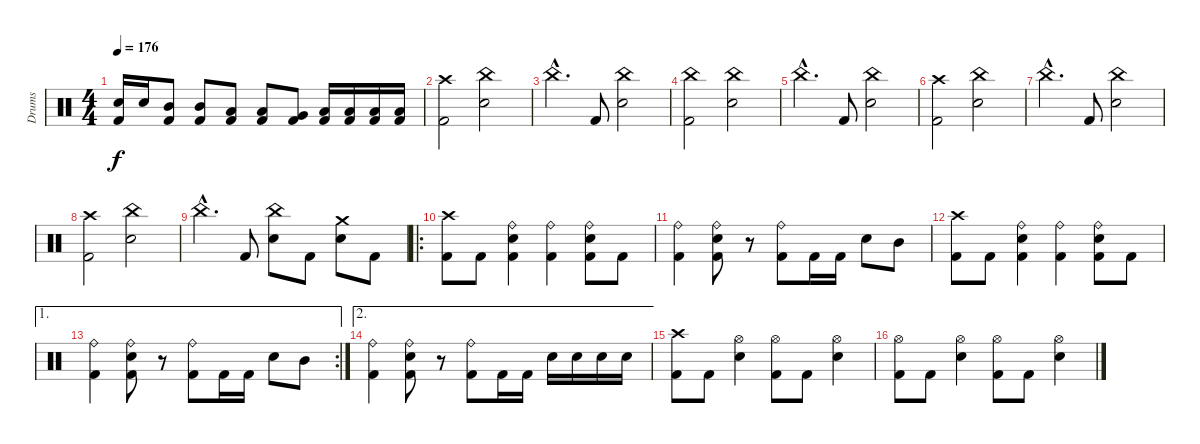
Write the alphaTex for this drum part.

\track ("Drums" "Drums") {instrument percussion}
\staff {score}
\articulation defaults
\ts (4 4)
\tempo 176
\clef neutral
\ks c
("Electric Snare (hit)" "Kick (hit) 2").16{dy f} "Electric Snare (hit)".16 ("Mid Tom (hit)" "Kick (hit) 2").8 ("Mid Tom (hit)" "Kick (hit) 2").8 ("Low Tom (hit)" "Kick (hit) 2").8 ("Low Tom (hit)" "Kick (hit) 2").8 ("Very Low Tom (hit)" "Kick (hit) 2").8 ("Low Floor Tom (hit)" "Kick (hit) 2").16 ("Low Floor Tom (hit)" "Kick (hit) 2").16 ("Low Floor Tom (hit)" "Kick (hit) 2").16 ("Low Floor Tom (hit)" "Kick (hit) 2").16 |
("Crash high (hit)" "Kick (hit) 2").2 ("China (hit)" "Electric Snare (hit)").2 |
"China (hit)"{hac}.4{d} "Kick (hit) 2".8 ("China (hit)" "Electric Snare (hit)").2 |
("China (hit)" "Kick (hit) 2").2 ("China (hit)" "Electric Snare (hit)").2 |
"China (hit)"{hac}.4{d} "Kick (hit) 2".8 ("China (hit)" "Electric Snare (hit)").2 |
("Crash high (hit)" "Kick (hit) 2").2 ("China (hit)" "Electric Snare (hit)").2 |
"China (hit)"{hac}.4{d} "Kick (hit) 2".8 ("China (hit)" "Electric Snare (hit)").2 |
("Crash high (hit)" "Kick (hit) 2").2 ("China (hit)" "Electric Snare (hit)").2 |
"China (hit)"{hac}.4{d} "Kick (hit) 2".8 ("China (hit)" "Electric Snare (hit)").8 "Kick (hit) 2".8 ("Crash medium (hit)" "Electric Snare (hit)").8 "Kick (hit) 2".8 |
\ro
("Crash high (hit)" "Kick (hit) 2").8 "Kick (hit) 2".8 ("Ride (bell)" "Electric Snare (hit)" "Kick (hit) 2").4 ("Ride (bell)" "Kick (hit) 2").4 ("Ride (bell)" "Electric Snare (hit)" "Kick (hit) 2").8 "Kick (hit) 2".8 |
("Ride (bell)" "Kick (hit) 2").4 ("Ride (bell)" "Electric Snare (hit)" "Kick (hit) 2").8 r.8 ("Ride (bell)" "Kick (hit) 2").8 "Kick (hit) 2".16 "Kick (hit) 2".16 "Electric Snare (hit)".8 "Mid Tom (hit)".8 |
("Crash high (hit)" "Kick (hit) 2").8 "Kick (hit) 2".8 ("Ride (bell)" "Electric Snare (hit)" "Kick (hit) 2").4 ("Ride (bell)" "Kick (hit) 2").4 ("Ride (bell)" "Electric Snare (hit)" "Kick (hit) 2").8 "Kick (hit) 2".8 |
\ae 1
\rc 2
("Ride (bell)" "Kick (hit) 2").4 ("Ride (bell)" "Electric Snare (hit)" "Kick (hit) 2").8 r.8 ("Ride (bell)" "Kick (hit) 2").8 "Kick (hit) 2".16 "Kick (hit) 2".16 "Electric Snare (hit)".8 "Mid Tom (hit)".8 |
\ae 2
("Ride (bell)" "Kick (hit) 2").4 ("Ride (bell)" "Electric Snare (hit)" "Kick (hit) 2").8 r.8 ("Ride (bell)" "Kick (hit) 2").8 "Kick (hit) 2".16 "Kick (hit) 2".16 "Electric Snare (hit)".16 "Electric Snare (hit)".16 "Electric Snare (hit)".16 "Electric Snare (hit)".16 |
("Crash high (hit)" "Kick (hit) 2").8 "Kick (hit) 2".8 ("Hi-Hat (open)" "Electric Snare (hit)").4 ("Hi-Hat (open)" "Kick (hit) 2").8 "Kick (hit) 2".8 ("Hi-Hat (open)" "Electric Snare (hit)").4 |
("Hi-Hat (open)" "Kick (hit) 2").8 "Kick (hit) 2".8 ("Hi-Hat (open)" "Electric Snare (hit)").4 ("Hi-Hat (open)" "Kick (hit) 2").8 "Kick (hit) 2".8 ("Hi-Hat (open)" "Electric Snare (hit)").4
